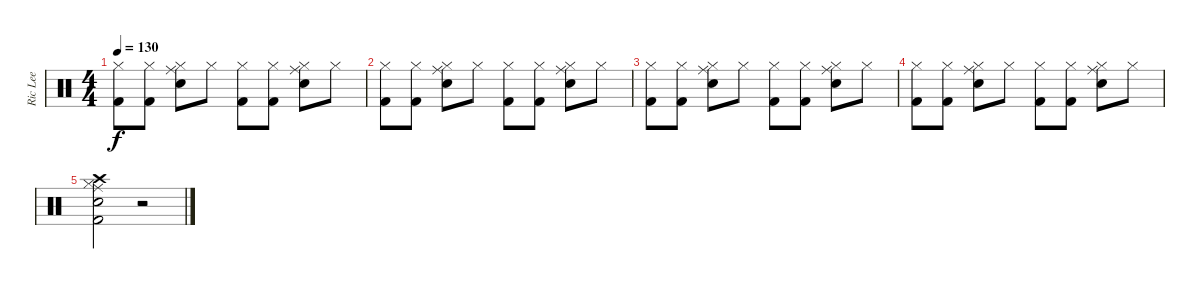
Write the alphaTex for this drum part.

\track ("Ric Lee" "Ric Lee") {instrument percussion}
\staff {score}
\articulation defaults
\ts (4 4)
\tempo 130
\clef neutral
\ks c
("Kick (hit) 2" "Hi-Hat (closed)").8{dy f} ("Kick (hit) 2" "Hi-Hat (closed)").8 ("Snare (hit) 2" "Hi-Hat (closed)" "Ride (middle)").8 "Hi-Hat (closed)".8 ("Kick (hit) 2" "Hi-Hat (closed)").8 ("Kick (hit) 2" "Hi-Hat (closed)").8 ("Snare (hit) 2" "Hi-Hat (closed)" "Ride (middle)").8 "Hi-Hat (closed)".8 |
("Kick (hit) 2" "Hi-Hat (closed)").8 ("Kick (hit) 2" "Hi-Hat (closed)").8 ("Snare (hit) 2" "Hi-Hat (closed)" "Ride (middle)").8 "Hi-Hat (closed)".8 ("Kick (hit) 2" "Hi-Hat (closed)").8 ("Kick (hit) 2" "Hi-Hat (closed)").8 ("Snare (hit) 2" "Hi-Hat (closed)" "Ride (middle)").8 "Hi-Hat (closed)".8 |
("Kick (hit) 2" "Hi-Hat (closed)").8 ("Kick (hit) 2" "Hi-Hat (closed)").8 ("Snare (hit) 2" "Hi-Hat (closed)" "Ride (middle)").8 "Hi-Hat (closed)".8 ("Kick (hit) 2" "Hi-Hat (closed)").8 ("Kick (hit) 2" "Hi-Hat (closed)").8 ("Snare (hit) 2" "Hi-Hat (closed)" "Ride (middle)").8 "Hi-Hat (closed)".8 |
("Kick (hit) 2" "Hi-Hat (closed)").8 ("Kick (hit) 2" "Hi-Hat (closed)").8 ("Snare (hit) 2" "Hi-Hat (closed)" "Ride (middle)").8 "Hi-Hat (closed)".8 ("Kick (hit) 2" "Hi-Hat (closed)").8 ("Kick (hit) 2" "Hi-Hat (closed)").8 ("Snare (hit) 2" "Hi-Hat (closed)" "Ride (middle)").8 "Hi-Hat (closed)".8 |
("Ride (middle)" "Crash high (hit)" "Snare (hit) 2" "Kick (hit) 2" "Hi-Hat (closed)").2 r.2
